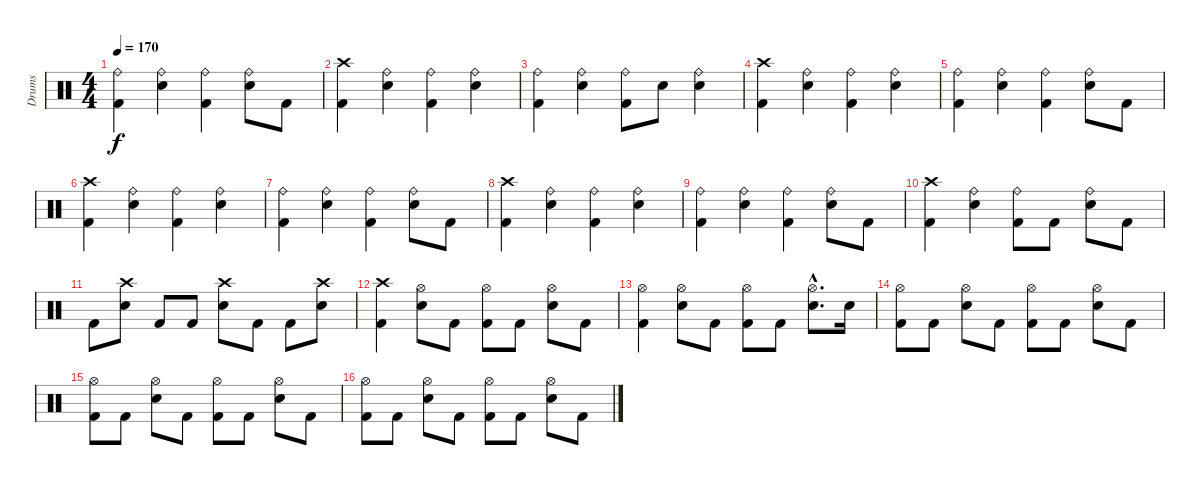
\track ("Drums" "Drums") {instrument percussion}
\staff {score}
\articulation defaults
\ts (4 4)
\tempo 170
\clef neutral
\ks c
("Ride (bell)" "Kick (hit) 2").4{dy f} ("Ride (bell)" "Electric Snare (hit)").4 ("Ride (bell)" "Kick (hit) 2").4 ("Ride (bell)" "Electric Snare (hit)").8 "Kick (hit) 2".8 |
("Crash high (hit)" "Kick (hit) 2").4 ("Ride (bell)" "Electric Snare (hit)").4 ("Ride (bell)" "Kick (hit) 2").4 ("Ride (bell)" "Electric Snare (hit)").4 |
("Ride (bell)" "Kick (hit) 2").4 ("Ride (bell)" "Electric Snare (hit)").4 ("Ride (bell)" "Kick (hit) 2").8 "Electric Snare (hit)".8 ("Ride (bell)" "Electric Snare (hit)").4 |
("Crash high (hit)" "Kick (hit) 2").4 ("Ride (bell)" "Electric Snare (hit)").4 ("Ride (bell)" "Kick (hit) 2").4 ("Ride (bell)" "Electric Snare (hit)").4 |
("Ride (bell)" "Kick (hit) 2").4 ("Ride (bell)" "Electric Snare (hit)").4 ("Ride (bell)" "Kick (hit) 2").4 ("Ride (bell)" "Electric Snare (hit)").8 "Kick (hit) 2".8 |
("Crash high (hit)" "Kick (hit) 2").4 ("Ride (bell)" "Electric Snare (hit)").4 ("Ride (bell)" "Kick (hit) 2").4 ("Ride (bell)" "Electric Snare (hit)").4 |
("Ride (bell)" "Kick (hit) 2").4 ("Ride (bell)" "Electric Snare (hit)").4 ("Ride (bell)" "Kick (hit) 2").4 ("Ride (bell)" "Electric Snare (hit)").8 "Kick (hit) 2".8 |
("Crash high (hit)" "Kick (hit) 2").4 ("Ride (bell)" "Electric Snare (hit)").4 ("Ride (bell)" "Kick (hit) 2").4 ("Ride (bell)" "Electric Snare (hit)").4 |
("Ride (bell)" "Kick (hit) 2").4 ("Ride (bell)" "Electric Snare (hit)").4 ("Ride (bell)" "Kick (hit) 2").4 ("Ride (bell)" "Electric Snare (hit)").8 "Kick (hit) 2".8 |
("Crash high (hit)" "Kick (hit) 2").4 ("Ride (bell)" "Electric Snare (hit)").4 ("Ride (bell)" "Kick (hit) 2").8 "Kick (hit) 2".8 ("Ride (bell)" "Electric Snare (hit)").8 "Kick (hit) 2".8 |
"Kick (hit) 2".8 ("Crash high (hit)" "Electric Snare (hit)").8 "Kick (hit) 2".8 "Kick (hit) 2".8 ("Crash high (hit)" "Electric Snare (hit)").8 "Kick (hit) 2".8 "Kick (hit) 2".8 ("Crash high (hit)" "Electric Snare (hit)").8 |
("Crash high (hit)" "Kick (hit) 2").4 ("Hi-Hat (open)" "Electric Snare (hit)").8 "Kick (hit) 2".8 ("Hi-Hat (open)" "Kick (hit) 2").8 "Kick (hit) 2".8 ("Hi-Hat (open)" "Electric Snare (hit)").8 "Kick (hit) 2".8 |
("Hi-Hat (open)" "Kick (hit) 2").4 ("Hi-Hat (open)" "Electric Snare (hit)").8 "Kick (hit) 2".8 ("Hi-Hat (open)" "Kick (hit) 2").8 "Kick (hit) 2".8 ("Hi-Hat (open)"{hac} "Electric Snare (hit)"{hac}).8{d} "Electric Snare (hit)".16 |
("Hi-Hat (open)" "Kick (hit) 2").8 "Kick (hit) 2".8 ("Hi-Hat (open)" "Electric Snare (hit)").8 "Kick (hit) 2".8 ("Hi-Hat (open)" "Kick (hit) 2").8 "Kick (hit) 2".8 ("Hi-Hat (open)" "Electric Snare (hit)").8 "Kick (hit) 2".8 |
("Hi-Hat (open)" "Kick (hit) 2").8 "Kick (hit) 2".8 ("Hi-Hat (open)" "Electric Snare (hit)").8 "Kick (hit) 2".8 ("Hi-Hat (open)" "Kick (hit) 2").8 "Kick (hit) 2".8 ("Hi-Hat (open)" "Electric Snare (hit)").8 "Kick (hit) 2".8 |
("Hi-Hat (open)" "Kick (hit) 2").8 "Kick (hit) 2".8 ("Hi-Hat (open)" "Electric Snare (hit)").8 "Kick (hit) 2".8 ("Hi-Hat (open)" "Kick (hit) 2").8 "Kick (hit) 2".8 ("Hi-Hat (open)" "Electric Snare (hit)").8 "Kick (hit) 2".8
